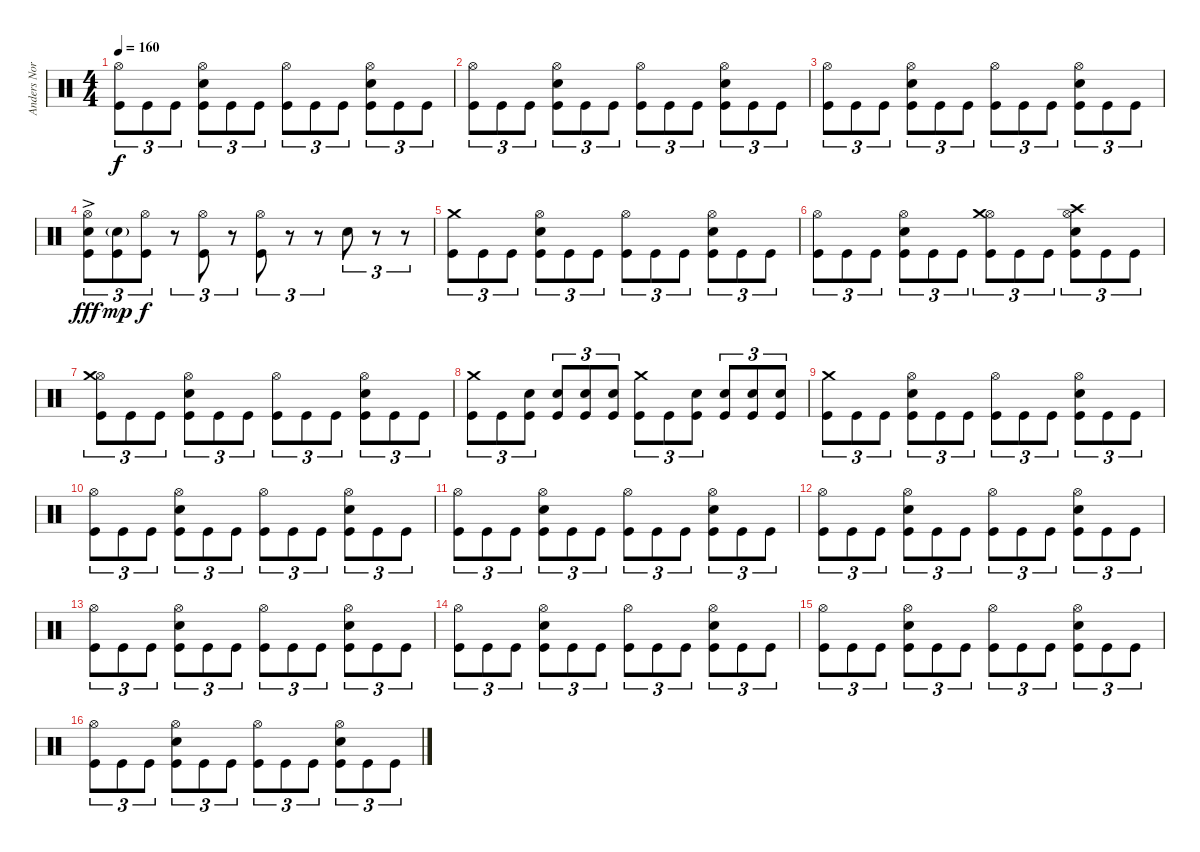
\track ("Anders Nordin" "Anders Nor") {instrument percussion}
\staff {score}
\articulation defaults
\ts (4 4)
\tempo 160
\clef neutral
\ks c
("Hi-Hat (open)" "Kick (hit)").8{tu (3 2) dy f} "Kick (hit)".8{tu (3 2)} "Kick (hit)".8{tu (3 2)} ("Hi-Hat (open)" "Electric Snare (hit)" "Kick (hit)").8{tu (3 2)} "Kick (hit)".8{tu (3 2)} "Kick (hit)".8{tu (3 2)} ("Hi-Hat (open)" "Kick (hit)").8{tu (3 2)} "Kick (hit)".8{tu (3 2)} "Kick (hit)".8{tu (3 2)} ("Hi-Hat (open)" "Electric Snare (hit)" "Kick (hit)").8{tu (3 2)} "Kick (hit)".8{tu (3 2)} "Kick (hit)".8{tu (3 2)} |
("Hi-Hat (open)" "Kick (hit)").8{tu (3 2)} "Kick (hit)".8{tu (3 2)} "Kick (hit)".8{tu (3 2)} ("Hi-Hat (open)" "Electric Snare (hit)" "Kick (hit)").8{tu (3 2)} "Kick (hit)".8{tu (3 2)} "Kick (hit)".8{tu (3 2)} ("Hi-Hat (open)" "Kick (hit)").8{tu (3 2)} "Kick (hit)".8{tu (3 2)} "Kick (hit)".8{tu (3 2)} ("Hi-Hat (open)" "Electric Snare (hit)" "Kick (hit)").8{tu (3 2)} "Kick (hit)".8{tu (3 2)} "Kick (hit)".8{tu (3 2)} |
("Hi-Hat (open)" "Kick (hit)").8{tu (3 2)} "Kick (hit)".8{tu (3 2)} "Kick (hit)".8{tu (3 2)} ("Hi-Hat (open)" "Electric Snare (hit)" "Kick (hit)").8{tu (3 2)} "Kick (hit)".8{tu (3 2)} "Kick (hit)".8{tu (3 2)} ("Hi-Hat (open)" "Kick (hit)").8{tu (3 2)} "Kick (hit)".8{tu (3 2)} "Kick (hit)".8{tu (3 2)} ("Hi-Hat (open)" "Electric Snare (hit)" "Kick (hit)").8{tu (3 2)} "Kick (hit)".8{tu (3 2)} "Kick (hit)".8{tu (3 2)} |
("Hi-Hat (open)" "Electric Snare (hit)"{ac} "Kick (hit)").8{tu (3 2) dy fff} ("Electric Snare (hit)"{g} "Kick (hit)").8{tu (3 2) dy mp} ("Hi-Hat (open)" "Kick (hit)").8{tu (3 2) dy f} r.8{tu (3 2)} ("Hi-Hat (open)" "Kick (hit)").8{tu (3 2)} r.8{tu (3 2)} ("Hi-Hat (open)" "Kick (hit)").8{tu (3 2)} r.8{tu (3 2)} r.8{tu (3 2)} "Electric Snare (hit)".8{tu (3 2)} r.8{tu (3 2)} r.8{tu (3 2)} |
("Crash medium (hit)" "Kick (hit)").8{tu (3 2)} "Kick (hit)".8{tu (3 2)} "Kick (hit)".8{tu (3 2)} ("Hi-Hat (open)" "Electric Snare (hit)" "Kick (hit)").8{tu (3 2)} "Kick (hit)".8{tu (3 2)} "Kick (hit)".8{tu (3 2)} ("Hi-Hat (open)" "Kick (hit)").8{tu (3 2)} "Kick (hit)".8{tu (3 2)} "Kick (hit)".8{tu (3 2)} ("Hi-Hat (open)" "Electric Snare (hit)" "Kick (hit)").8{tu (3 2)} "Kick (hit)".8{tu (3 2)} "Kick (hit)".8{tu (3 2)} |
("Hi-Hat (open)" "Kick (hit)").8{tu (3 2)} "Kick (hit)".8{tu (3 2)} "Kick (hit)".8{tu (3 2)} ("Hi-Hat (open)" "Electric Snare (hit)" "Kick (hit)").8{tu (3 2)} "Kick (hit)".8{tu (3 2)} "Kick (hit)".8{tu (3 2)} ("Hi-Hat (open)" "Crash medium (hit)" "Kick (hit)").8{tu (3 2)} "Kick (hit)".8{tu (3 2)} "Kick (hit)".8{tu (3 2)} ("Hi-Hat (open)" "Crash high (hit)" "Electric Snare (hit)" "Kick (hit)").8{tu (3 2)} "Kick (hit)".8{tu (3 2)} "Kick (hit)".8{tu (3 2)} |
("Hi-Hat (open)" "Crash medium (hit)" "Kick (hit)").8{tu (3 2)} "Kick (hit)".8{tu (3 2)} "Kick (hit)".8{tu (3 2)} ("Hi-Hat (open)" "Electric Snare (hit)" "Kick (hit)").8{tu (3 2)} "Kick (hit)".8{tu (3 2)} "Kick (hit)".8{tu (3 2)} ("Hi-Hat (open)" "Kick (hit)").8{tu (3 2)} "Kick (hit)".8{tu (3 2)} "Kick (hit)".8{tu (3 2)} ("Hi-Hat (open)" "Electric Snare (hit)" "Kick (hit)").8{tu (3 2)} "Kick (hit)".8{tu (3 2)} "Kick (hit)".8{tu (3 2)} |
("Crash medium (hit)" "Kick (hit)").8{tu (3 2)} "Kick (hit)".8{tu (3 2)} ("Electric Snare (hit)" "Kick (hit)").8{tu (3 2)} ("Electric Snare (hit)" "Kick (hit)").8{tu (3 2)} ("Electric Snare (hit)" "Kick (hit)").8{tu (3 2)} ("Electric Snare (hit)" "Kick (hit)").8{tu (3 2)} ("Crash medium (hit)" "Kick (hit)").8{tu (3 2)} "Kick (hit)".8{tu (3 2)} ("Electric Snare (hit)" "Kick (hit)").8{tu (3 2)} ("Electric Snare (hit)" "Kick (hit)").8{tu (3 2)} ("Electric Snare (hit)" "Kick (hit)").8{tu (3 2)} ("Electric Snare (hit)" "Kick (hit)").8{tu (3 2)} |
("Crash medium (hit)" "Kick (hit)").8{tu (3 2)} "Kick (hit)".8{tu (3 2)} "Kick (hit)".8{tu (3 2)} ("Hi-Hat (open)" "Electric Snare (hit)" "Kick (hit)").8{tu (3 2)} "Kick (hit)".8{tu (3 2)} "Kick (hit)".8{tu (3 2)} ("Hi-Hat (open)" "Kick (hit)").8{tu (3 2)} "Kick (hit)".8{tu (3 2)} "Kick (hit)".8{tu (3 2)} ("Hi-Hat (open)" "Electric Snare (hit)" "Kick (hit)").8{tu (3 2)} "Kick (hit)".8{tu (3 2)} "Kick (hit)".8{tu (3 2)} |
("Hi-Hat (open)" "Kick (hit)").8{tu (3 2)} "Kick (hit)".8{tu (3 2)} "Kick (hit)".8{tu (3 2)} ("Hi-Hat (open)" "Electric Snare (hit)" "Kick (hit)").8{tu (3 2)} "Kick (hit)".8{tu (3 2)} "Kick (hit)".8{tu (3 2)} ("Hi-Hat (open)" "Kick (hit)").8{tu (3 2)} "Kick (hit)".8{tu (3 2)} "Kick (hit)".8{tu (3 2)} ("Hi-Hat (open)" "Electric Snare (hit)" "Kick (hit)").8{tu (3 2)} "Kick (hit)".8{tu (3 2)} "Kick (hit)".8{tu (3 2)} |
("Hi-Hat (open)" "Kick (hit)").8{tu (3 2)} "Kick (hit)".8{tu (3 2)} "Kick (hit)".8{tu (3 2)} ("Hi-Hat (open)" "Electric Snare (hit)" "Kick (hit)").8{tu (3 2)} "Kick (hit)".8{tu (3 2)} "Kick (hit)".8{tu (3 2)} ("Hi-Hat (open)" "Kick (hit)").8{tu (3 2)} "Kick (hit)".8{tu (3 2)} "Kick (hit)".8{tu (3 2)} ("Hi-Hat (open)" "Electric Snare (hit)" "Kick (hit)").8{tu (3 2)} "Kick (hit)".8{tu (3 2)} "Kick (hit)".8{tu (3 2)} |
("Hi-Hat (open)" "Kick (hit)").8{tu (3 2)} "Kick (hit)".8{tu (3 2)} "Kick (hit)".8{tu (3 2)} ("Hi-Hat (open)" "Electric Snare (hit)" "Kick (hit)").8{tu (3 2)} "Kick (hit)".8{tu (3 2)} "Kick (hit)".8{tu (3 2)} ("Hi-Hat (open)" "Kick (hit)").8{tu (3 2)} "Kick (hit)".8{tu (3 2)} "Kick (hit)".8{tu (3 2)} ("Hi-Hat (open)" "Electric Snare (hit)" "Kick (hit)").8{tu (3 2)} "Kick (hit)".8{tu (3 2)} "Kick (hit)".8{tu (3 2)} |
("Hi-Hat (open)" "Kick (hit)").8{tu (3 2)} "Kick (hit)".8{tu (3 2)} "Kick (hit)".8{tu (3 2)} ("Hi-Hat (open)" "Electric Snare (hit)" "Kick (hit)").8{tu (3 2)} "Kick (hit)".8{tu (3 2)} "Kick (hit)".8{tu (3 2)} ("Hi-Hat (open)" "Kick (hit)").8{tu (3 2)} "Kick (hit)".8{tu (3 2)} "Kick (hit)".8{tu (3 2)} ("Hi-Hat (open)" "Electric Snare (hit)" "Kick (hit)").8{tu (3 2)} "Kick (hit)".8{tu (3 2)} "Kick (hit)".8{tu (3 2)} |
("Hi-Hat (open)" "Kick (hit)").8{tu (3 2)} "Kick (hit)".8{tu (3 2)} "Kick (hit)".8{tu (3 2)} ("Hi-Hat (open)" "Electric Snare (hit)" "Kick (hit)").8{tu (3 2)} "Kick (hit)".8{tu (3 2)} "Kick (hit)".8{tu (3 2)} ("Hi-Hat (open)" "Kick (hit)").8{tu (3 2)} "Kick (hit)".8{tu (3 2)} "Kick (hit)".8{tu (3 2)} ("Hi-Hat (open)" "Electric Snare (hit)" "Kick (hit)").8{tu (3 2)} "Kick (hit)".8{tu (3 2)} "Kick (hit)".8{tu (3 2)} |
("Hi-Hat (open)" "Kick (hit)").8{tu (3 2)} "Kick (hit)".8{tu (3 2)} "Kick (hit)".8{tu (3 2)} ("Hi-Hat (open)" "Electric Snare (hit)" "Kick (hit)").8{tu (3 2)} "Kick (hit)".8{tu (3 2)} "Kick (hit)".8{tu (3 2)} ("Hi-Hat (open)" "Kick (hit)").8{tu (3 2)} "Kick (hit)".8{tu (3 2)} "Kick (hit)".8{tu (3 2)} ("Hi-Hat (open)" "Electric Snare (hit)" "Kick (hit)").8{tu (3 2)} "Kick (hit)".8{tu (3 2)} "Kick (hit)".8{tu (3 2)} |
("Hi-Hat (open)" "Kick (hit)").8{tu (3 2)} "Kick (hit)".8{tu (3 2)} "Kick (hit)".8{tu (3 2)} ("Hi-Hat (open)" "Electric Snare (hit)" "Kick (hit)").8{tu (3 2)} "Kick (hit)".8{tu (3 2)} "Kick (hit)".8{tu (3 2)} ("Hi-Hat (open)" "Kick (hit)").8{tu (3 2)} "Kick (hit)".8{tu (3 2)} "Kick (hit)".8{tu (3 2)} ("Hi-Hat (open)" "Electric Snare (hit)" "Kick (hit)").8{tu (3 2)} "Kick (hit)".8{tu (3 2)} "Kick (hit)".8{tu (3 2)}
